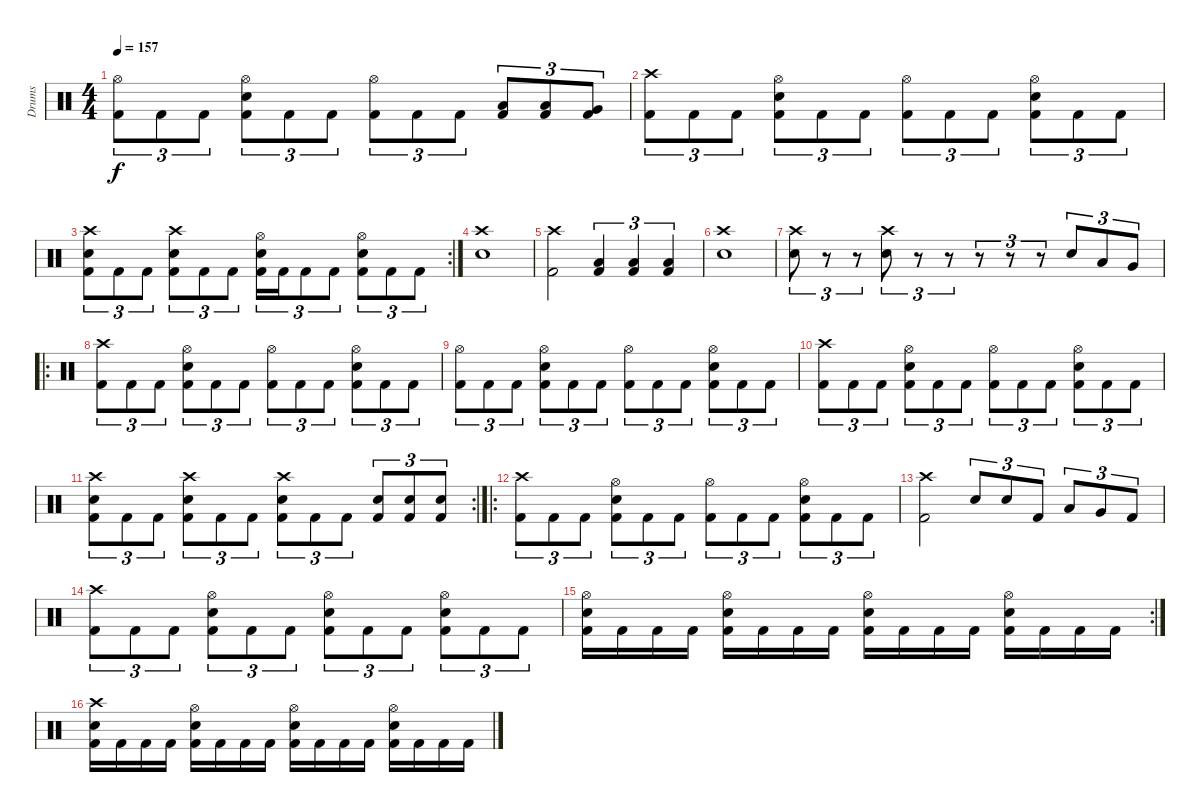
\track ("Drums" "Drums") {instrument percussion}
\staff {score}
\articulation defaults
\ts (4 4)
\tempo 157
\clef neutral
\ks c
("Hi-Hat (open)" "Kick (hit) 2").8{tu (3 2) dy f} "Kick (hit) 2".8{tu (3 2)} "Kick (hit) 2".8{tu (3 2)} ("Hi-Hat (open)" "Electric Snare (hit)" "Kick (hit) 2").8{tu (3 2)} "Kick (hit) 2".8{tu (3 2)} "Kick (hit) 2".8{tu (3 2)} ("Hi-Hat (open)" "Kick (hit) 2").8{tu (3 2)} "Kick (hit) 2".8{tu (3 2)} "Kick (hit) 2".8{tu (3 2)} ("Low Tom (hit)" "Kick (hit) 2").8{tu (3 2)} ("Low Tom (hit)" "Kick (hit) 2").8{tu (3 2)} ("Very Low Tom (hit)" "Kick (hit) 2").8{tu (3 2)} |
("Crash high (hit)" "Kick (hit) 2").8{tu (3 2)} "Kick (hit) 2".8{tu (3 2)} "Kick (hit) 2".8{tu (3 2)} ("Hi-Hat (open)" "Electric Snare (hit)" "Kick (hit) 2").8{tu (3 2)} "Kick (hit) 2".8{tu (3 2)} "Kick (hit) 2".8{tu (3 2)} ("Hi-Hat (open)" "Kick (hit) 2").8{tu (3 2)} "Kick (hit) 2".8{tu (3 2)} "Kick (hit) 2".8{tu (3 2)} ("Hi-Hat (open)" "Electric Snare (hit)" "Kick (hit) 2").8{tu (3 2)} "Kick (hit) 2".8{tu (3 2)} "Kick (hit) 2".8{tu (3 2)} |
\rc 2
("Crash high (hit)" "Electric Snare (hit)" "Kick (hit) 2").8{tu (3 2)} "Kick (hit) 2".8{tu (3 2)} "Kick (hit) 2".8{tu (3 2)} ("Crash high (hit)" "Electric Snare (hit)" "Kick (hit) 2").8{tu (3 2)} "Kick (hit) 2".8{tu (3 2)} "Kick (hit) 2".8{tu (3 2)} ("Hi-Hat (open)" "Electric Snare (hit)" "Kick (hit) 2").16{tu (3 2)} "Kick (hit) 2".16{tu (3 2)} "Kick (hit) 2".8{tu (3 2)} "Kick (hit) 2".8{tu (3 2)} ("Hi-Hat (open)" "Electric Snare (hit)" "Kick (hit) 2").8{tu (3 2)} "Kick (hit) 2".8{tu (3 2)} "Kick (hit) 2".8{tu (3 2)} |
("Crash high (hit)" "Electric Snare (hit)").1 |
("Crash high (hit)" "Kick (hit) 2").2 ("Low Floor Tom (hit)" "Kick (hit) 2").4{tu (3 2)} ("Low Floor Tom (hit)" "Kick (hit) 2").4{tu (3 2)} ("Low Floor Tom (hit)" "Kick (hit) 2").4{tu (3 2)} |
("Crash high (hit)" "Electric Snare (hit)").1 |
("Crash high (hit)" "Electric Snare (hit)").8{tu (3 2)} r.8{tu (3 2)} r.8{tu (3 2)} ("Crash high (hit)" "Electric Snare (hit)").8{tu (3 2)} r.8{tu (3 2)} r.8{tu (3 2)} r.8{tu (3 2)} r.8{tu (3 2)} r.8{tu (3 2)} "Electric Snare (hit)".8{tu (3 2)} "Low Tom (hit)".8{tu (3 2)} "Very Low Tom (hit)".8{tu (3 2)} |
\ro
("Crash high (hit)" "Kick (hit) 2").8{tu (3 2)} "Kick (hit) 2".8{tu (3 2)} "Kick (hit) 2".8{tu (3 2)} ("Hi-Hat (open)" "Electric Snare (hit)" "Kick (hit) 2").8{tu (3 2)} "Kick (hit) 2".8{tu (3 2)} "Kick (hit) 2".8{tu (3 2)} ("Hi-Hat (open)" "Kick (hit) 2").8{tu (3 2)} "Kick (hit) 2".8{tu (3 2)} "Kick (hit) 2".8{tu (3 2)} ("Hi-Hat (open)" "Electric Snare (hit)" "Kick (hit) 2").8{tu (3 2)} "Kick (hit) 2".8{tu (3 2)} "Kick (hit) 2".8{tu (3 2)} |
("Hi-Hat (open)" "Kick (hit) 2").8{tu (3 2)} "Kick (hit) 2".8{tu (3 2)} "Kick (hit) 2".8{tu (3 2)} ("Hi-Hat (open)" "Electric Snare (hit)" "Kick (hit) 2").8{tu (3 2)} "Kick (hit) 2".8{tu (3 2)} "Kick (hit) 2".8{tu (3 2)} ("Hi-Hat (open)" "Kick (hit) 2").8{tu (3 2)} "Kick (hit) 2".8{tu (3 2)} "Kick (hit) 2".8{tu (3 2)} ("Hi-Hat (open)" "Electric Snare (hit)" "Kick (hit) 2").8{tu (3 2)} "Kick (hit) 2".8{tu (3 2)} "Kick (hit) 2".8{tu (3 2)} |
("Crash high (hit)" "Kick (hit) 2").8{tu (3 2)} "Kick (hit) 2".8{tu (3 2)} "Kick (hit) 2".8{tu (3 2)} ("Hi-Hat (open)" "Electric Snare (hit)" "Kick (hit) 2").8{tu (3 2)} "Kick (hit) 2".8{tu (3 2)} "Kick (hit) 2".8{tu (3 2)} ("Hi-Hat (open)" "Kick (hit) 2").8{tu (3 2)} "Kick (hit) 2".8{tu (3 2)} "Kick (hit) 2".8{tu (3 2)} ("Hi-Hat (open)" "Electric Snare (hit)" "Kick (hit) 2").8{tu (3 2)} "Kick (hit) 2".8{tu (3 2)} "Kick (hit) 2".8{tu (3 2)} |
\rc 2
("Crash high (hit)" "Electric Snare (hit)" "Kick (hit) 2").8{tu (3 2)} "Kick (hit) 2".8{tu (3 2)} "Kick (hit) 2".8{tu (3 2)} ("Crash high (hit)" "Electric Snare (hit)" "Kick (hit) 2").8{tu (3 2)} "Kick (hit) 2".8{tu (3 2)} "Kick (hit) 2".8{tu (3 2)} ("Crash high (hit)" "Electric Snare (hit)" "Kick (hit) 2").8{tu (3 2)} "Kick (hit) 2".8{tu (3 2)} "Kick (hit) 2".8{tu (3 2)} ("Electric Snare (hit)" "Kick (hit) 2").8{tu (3 2)} ("Electric Snare (hit)" "Kick (hit) 2").8{tu (3 2)} ("Electric Snare (hit)" "Kick (hit) 2").8{tu (3 2)} |
\ro
("Crash high (hit)" "Kick (hit) 2").8{tu (3 2)} "Kick (hit) 2".8{tu (3 2)} "Kick (hit) 2".8{tu (3 2)} ("Hi-Hat (open)" "Electric Snare (hit)" "Kick (hit) 2").8{tu (3 2)} "Kick (hit) 2".8{tu (3 2)} "Kick (hit) 2".8{tu (3 2)} ("Hi-Hat (open)" "Kick (hit) 2").8{tu (3 2)} "Kick (hit) 2".8{tu (3 2)} "Kick (hit) 2".8{tu (3 2)} ("Hi-Hat (open)" "Electric Snare (hit)" "Kick (hit) 2").8{tu (3 2)} "Kick (hit) 2".8{tu (3 2)} "Kick (hit) 2".8{tu (3 2)} |
("Crash high (hit)" "Kick (hit) 2").2 "Electric Snare (hit)".8{tu (3 2)} "Electric Snare (hit)".8{tu (3 2)} "Kick (hit) 2".8{tu (3 2)} "Low Tom (hit)".8{tu (3 2)} "Very Low Tom (hit)".8{tu (3 2)} "Kick (hit) 2".8{tu (3 2)} |
("Crash high (hit)" "Kick (hit) 2").8{tu (3 2)} "Kick (hit) 2".8{tu (3 2)} "Kick (hit) 2".8{tu (3 2)} ("Hi-Hat (open)" "Electric Snare (hit)" "Kick (hit) 2").8{tu (3 2)} "Kick (hit) 2".8{tu (3 2)} "Kick (hit) 2".8{tu (3 2)} ("Hi-Hat (open)" "Electric Snare (hit)" "Kick (hit) 2").8{tu (3 2)} "Kick (hit) 2".8{tu (3 2)} "Kick (hit) 2".8{tu (3 2)} ("Hi-Hat (open)" "Electric Snare (hit)" "Kick (hit) 2").8{tu (3 2)} "Kick (hit) 2".8{tu (3 2)} "Kick (hit) 2".8{tu (3 2)} |
\rc 2
("Hi-Hat (open)" "Electric Snare (hit)" "Kick (hit) 2").16 "Kick (hit) 2".16 "Kick (hit) 2".16 "Kick (hit) 2".16 ("Hi-Hat (open)" "Electric Snare (hit)" "Kick (hit) 2").16 "Kick (hit) 2".16 "Kick (hit) 2".16 "Kick (hit) 2".16 ("Hi-Hat (open)" "Electric Snare (hit)" "Kick (hit) 2").16 "Kick (hit) 2".16 "Kick (hit) 2".16 "Kick (hit) 2".16 ("Hi-Hat (open)" "Electric Snare (hit)" "Kick (hit) 2").16 "Kick (hit) 2".16 "Kick (hit) 2".16 "Kick (hit) 2".16 |
("Crash high (hit)" "Electric Snare (hit)" "Kick (hit) 2").16 "Kick (hit) 2".16 "Kick (hit) 2".16 "Kick (hit) 2".16 ("Hi-Hat (open)" "Electric Snare (hit)" "Kick (hit) 2").16 "Kick (hit) 2".16 "Kick (hit) 2".16 "Kick (hit) 2".16 ("Hi-Hat (open)" "Electric Snare (hit)" "Kick (hit) 2").16 "Kick (hit) 2".16 "Kick (hit) 2".16 "Kick (hit) 2".16 ("Hi-Hat (open)" "Electric Snare (hit)" "Kick (hit) 2").16 "Kick (hit) 2".16 "Kick (hit) 2".16 "Kick (hit) 2".16
